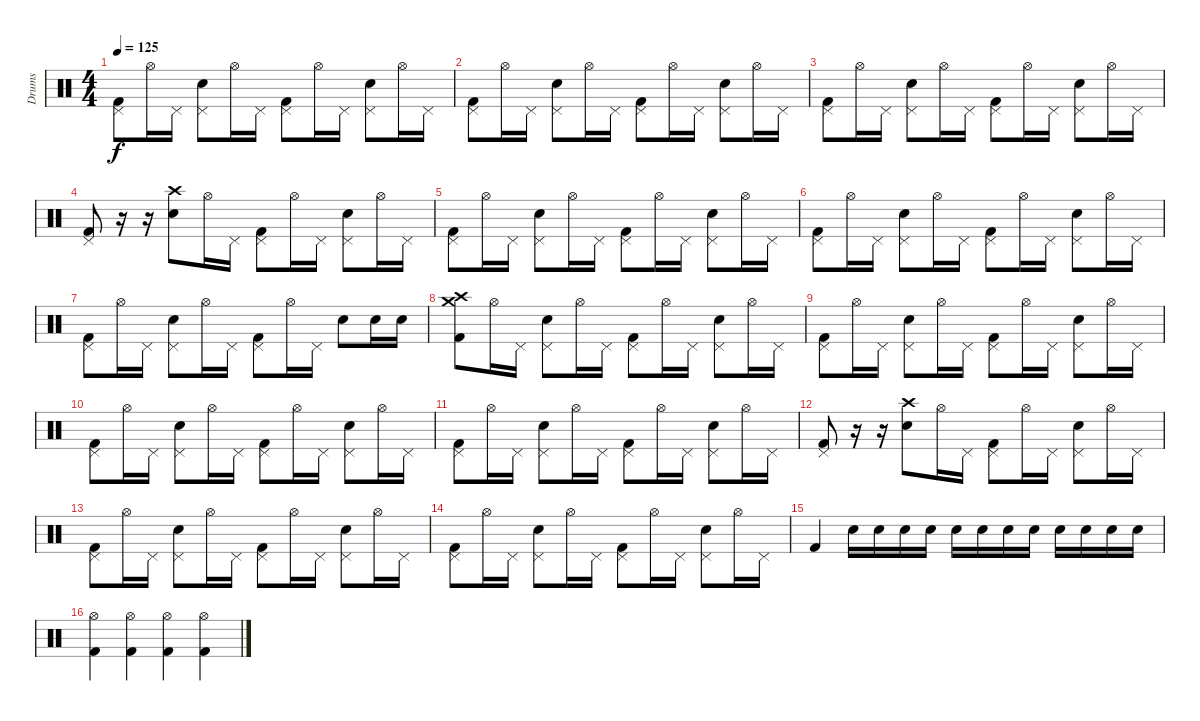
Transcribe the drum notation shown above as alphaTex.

\track ("Drums" "Drums") {instrument percussion}
\staff {score}
\articulation defaults
\ts (4 4)
\tempo 125
\clef neutral
\ks c
("Pedal Hi-Hat (hit)" "Kick (hit) 2").8{dy f} "Hi-Hat (open)".16 "Pedal Hi-Hat (hit)".16 ("Pedal Hi-Hat (hit)" "Snare (hit) 2").8 "Hi-Hat (open)".16 "Pedal Hi-Hat (hit)".16 ("Pedal Hi-Hat (hit)" "Kick (hit) 2").8 "Hi-Hat (open)".16 "Pedal Hi-Hat (hit)".16 ("Pedal Hi-Hat (hit)" "Snare (hit) 2").8 "Hi-Hat (open)".16 "Pedal Hi-Hat (hit)".16 |
("Pedal Hi-Hat (hit)" "Kick (hit) 2").8 "Hi-Hat (open)".16 "Pedal Hi-Hat (hit)".16 ("Pedal Hi-Hat (hit)" "Snare (hit) 2").8 "Hi-Hat (open)".16 "Pedal Hi-Hat (hit)".16 ("Pedal Hi-Hat (hit)" "Kick (hit) 2").8 "Hi-Hat (open)".16 "Pedal Hi-Hat (hit)".16 ("Pedal Hi-Hat (hit)" "Snare (hit) 2").8 "Hi-Hat (open)".16 "Pedal Hi-Hat (hit)".16 |
("Pedal Hi-Hat (hit)" "Kick (hit) 2").8 "Hi-Hat (open)".16 "Pedal Hi-Hat (hit)".16 ("Pedal Hi-Hat (hit)" "Snare (hit) 2").8 "Hi-Hat (open)".16 "Pedal Hi-Hat (hit)".16 ("Pedal Hi-Hat (hit)" "Kick (hit) 2").8 "Hi-Hat (open)".16 "Pedal Hi-Hat (hit)".16 ("Pedal Hi-Hat (hit)" "Snare (hit) 2").8 "Hi-Hat (open)".16 "Pedal Hi-Hat (hit)".16 |
("Pedal Hi-Hat (hit)" "Kick (hit) 2").8 r.16 r.16 ("Crash high (hit)" "Snare (hit) 2").8 "Hi-Hat (open)".16 "Pedal Hi-Hat (hit)".16 ("Pedal Hi-Hat (hit)" "Kick (hit) 2").8 "Hi-Hat (open)".16 "Pedal Hi-Hat (hit)".16 ("Pedal Hi-Hat (hit)" "Snare (hit) 2").8 "Hi-Hat (open)".16 "Pedal Hi-Hat (hit)".16 |
("Pedal Hi-Hat (hit)" "Kick (hit) 2").8 "Hi-Hat (open)".16 "Pedal Hi-Hat (hit)".16 ("Pedal Hi-Hat (hit)" "Snare (hit) 2").8 "Hi-Hat (open)".16 "Pedal Hi-Hat (hit)".16 ("Pedal Hi-Hat (hit)" "Kick (hit) 2").8 "Hi-Hat (open)".16 "Pedal Hi-Hat (hit)".16 ("Pedal Hi-Hat (hit)" "Snare (hit) 2").8 "Hi-Hat (open)".16 "Pedal Hi-Hat (hit)".16 |
("Pedal Hi-Hat (hit)" "Kick (hit) 2").8 "Hi-Hat (open)".16 "Pedal Hi-Hat (hit)".16 ("Pedal Hi-Hat (hit)" "Snare (hit) 2").8 "Hi-Hat (open)".16 "Pedal Hi-Hat (hit)".16 ("Pedal Hi-Hat (hit)" "Kick (hit) 2").8 "Hi-Hat (open)".16 "Pedal Hi-Hat (hit)".16 ("Pedal Hi-Hat (hit)" "Snare (hit) 2").8 "Hi-Hat (open)".16 "Pedal Hi-Hat (hit)".16 |
("Pedal Hi-Hat (hit)" "Kick (hit) 2").8 "Hi-Hat (open)".16 "Pedal Hi-Hat (hit)".16 ("Pedal Hi-Hat (hit)" "Snare (hit) 2").8 "Hi-Hat (open)".16 "Pedal Hi-Hat (hit)".16 ("Pedal Hi-Hat (hit)" "Kick (hit) 2").8 "Hi-Hat (open)".16 "Pedal Hi-Hat (hit)".16 "Snare (hit) 2".8 "Snare (hit) 2".16 "Snare (hit) 2".16 |
("Crash high (hit)" "Crash medium (hit)" "Kick (hit) 2").8 "Hi-Hat (open)".16 "Pedal Hi-Hat (hit)".16 ("Pedal Hi-Hat (hit)" "Snare (hit) 2").8 "Hi-Hat (open)".16 "Pedal Hi-Hat (hit)".16 ("Pedal Hi-Hat (hit)" "Kick (hit) 2").8 "Hi-Hat (open)".16 "Pedal Hi-Hat (hit)".16 ("Pedal Hi-Hat (hit)" "Snare (hit) 2").8 "Hi-Hat (open)".16 "Pedal Hi-Hat (hit)".16 |
("Pedal Hi-Hat (hit)" "Kick (hit) 2").8 "Hi-Hat (open)".16 "Pedal Hi-Hat (hit)".16 ("Pedal Hi-Hat (hit)" "Snare (hit) 2").8 "Hi-Hat (open)".16 "Pedal Hi-Hat (hit)".16 ("Pedal Hi-Hat (hit)" "Kick (hit) 2").8 "Hi-Hat (open)".16 "Pedal Hi-Hat (hit)".16 ("Pedal Hi-Hat (hit)" "Snare (hit) 2").8 "Hi-Hat (open)".16 "Pedal Hi-Hat (hit)".16 |
("Pedal Hi-Hat (hit)" "Kick (hit) 2").8 "Hi-Hat (open)".16 "Pedal Hi-Hat (hit)".16 ("Pedal Hi-Hat (hit)" "Snare (hit) 2").8 "Hi-Hat (open)".16 "Pedal Hi-Hat (hit)".16 ("Pedal Hi-Hat (hit)" "Kick (hit) 2").8 "Hi-Hat (open)".16 "Pedal Hi-Hat (hit)".16 ("Pedal Hi-Hat (hit)" "Snare (hit) 2").8 "Hi-Hat (open)".16 "Pedal Hi-Hat (hit)".16 |
("Pedal Hi-Hat (hit)" "Kick (hit) 2").8 "Hi-Hat (open)".16 "Pedal Hi-Hat (hit)".16 ("Pedal Hi-Hat (hit)" "Snare (hit) 2").8 "Hi-Hat (open)".16 "Pedal Hi-Hat (hit)".16 ("Pedal Hi-Hat (hit)" "Kick (hit) 2").8 "Hi-Hat (open)".16 "Pedal Hi-Hat (hit)".16 ("Pedal Hi-Hat (hit)" "Snare (hit) 2").8 "Hi-Hat (open)".16 "Pedal Hi-Hat (hit)".16 |
("Pedal Hi-Hat (hit)" "Kick (hit) 2").8 r.16 r.16 ("Crash high (hit)" "Snare (hit) 2").8 "Hi-Hat (open)".16 "Pedal Hi-Hat (hit)".16 ("Pedal Hi-Hat (hit)" "Kick (hit) 2").8 "Hi-Hat (open)".16 "Pedal Hi-Hat (hit)".16 ("Pedal Hi-Hat (hit)" "Snare (hit) 2").8 "Hi-Hat (open)".16 "Pedal Hi-Hat (hit)".16 |
("Pedal Hi-Hat (hit)" "Kick (hit) 2").8 "Hi-Hat (open)".16 "Pedal Hi-Hat (hit)".16 ("Pedal Hi-Hat (hit)" "Snare (hit) 2").8 "Hi-Hat (open)".16 "Pedal Hi-Hat (hit)".16 ("Pedal Hi-Hat (hit)" "Kick (hit) 2").8 "Hi-Hat (open)".16 "Pedal Hi-Hat (hit)".16 ("Pedal Hi-Hat (hit)" "Snare (hit) 2").8 "Hi-Hat (open)".16 "Pedal Hi-Hat (hit)".16 |
("Pedal Hi-Hat (hit)" "Kick (hit) 2").8 "Hi-Hat (open)".16 "Pedal Hi-Hat (hit)".16 ("Pedal Hi-Hat (hit)" "Snare (hit) 2").8 "Hi-Hat (open)".16 "Pedal Hi-Hat (hit)".16 ("Pedal Hi-Hat (hit)" "Kick (hit) 2").8 "Hi-Hat (open)".16 "Pedal Hi-Hat (hit)".16 ("Pedal Hi-Hat (hit)" "Snare (hit) 2").8 "Hi-Hat (open)".16 "Pedal Hi-Hat (hit)".16 |
"Kick (hit) 2".4 "Snare (hit) 2".16 "Snare (hit) 2".16 "Snare (hit) 2".16 "Snare (hit) 2".16 "Snare (hit) 2".16 "Snare (hit) 2".16 "Snare (hit) 2".16 "Snare (hit) 2".16 "Snare (hit) 2".16 "Snare (hit) 2".16 "Snare (hit) 2".16 "Snare (hit) 2".16 |
("Hi-Hat (open)" "Kick (hit) 2").4 ("Hi-Hat (open)" "Kick (hit) 2").4 ("Hi-Hat (open)" "Kick (hit) 2").4 ("Hi-Hat (open)" "Kick (hit) 2").4
